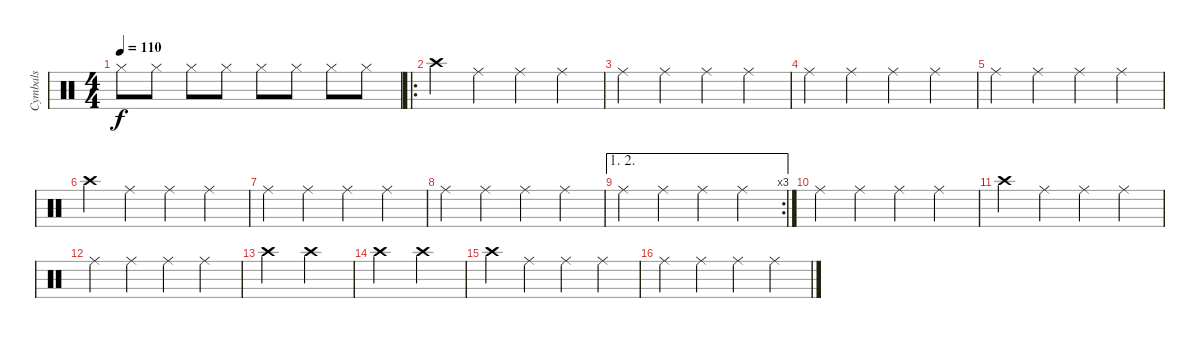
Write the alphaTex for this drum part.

\track ("Cymbals" "Cymbals") {instrument percussion}
\staff {score}
\articulation defaults
\ts (4 4)
\tempo 110
\clef neutral
\ks c "Hi-Hat (closed)".8{dy f} "Hi-Hat (closed)".8 "Hi-Hat (closed)".8 "Hi-Hat (closed)".8 "Hi-Hat (closed)".8 "Hi-Hat (closed)".8 "Hi-Hat (closed)".8 "Hi-Hat (closed)".8
|
\ro "Crash high (hit)".4 "Ride (middle)".4 "Ride (middle)".4 "Ride (middle)".4
|
"Ride (middle)".4 "Ride (middle)".4 "Ride (middle)".4 "Ride (middle)".4 |
"Ride (middle)".4 "Ride (middle)".4 "Ride (middle)".4 "Ride (middle)".4 |
"Ride (middle)".4 "Ride (middle)".4 "Ride (middle)".4 "Ride (middle)".4 |
"Crash high (hit)".4 "Ride (middle)".4 "Ride (middle)".4 "Ride (middle)".4 |
"Ride (middle)".4 "Ride (middle)".4 "Ride (middle)".4 "Ride (middle)".4 |
"Ride (middle)".4 "Ride (middle)".4 "Ride (middle)".4 "Ride (middle)".4 |
\ae (1 2)
\rc 3 "Ride (middle)".4 "Ride (middle)".4 "Ride (middle)".4 "Ride (middle)".4
|
"Ride (middle)".4 "Ride (middle)".4 "Ride (middle)".4 "Ride (middle)".4 |
"Crash high (hit)".4 "Ride (middle)".4 "Ride (middle)".4 "Ride (middle)".4 |
"Ride (middle)".4 "Ride (middle)".4 "Ride (middle)".4 "Ride (middle)".4 |
"Crash high (hit)".2 "Crash high (hit)".2 |
"Crash high (hit)".2 "Crash high (hit)".2 |
"Crash high (hit)".4 "Ride (middle)".4 "Ride (middle)".4 "Ride (middle)".4 |
"Ride (middle)".4 "Ride (middle)".4 "Ride (middle)".4 "Ride (middle)".4
